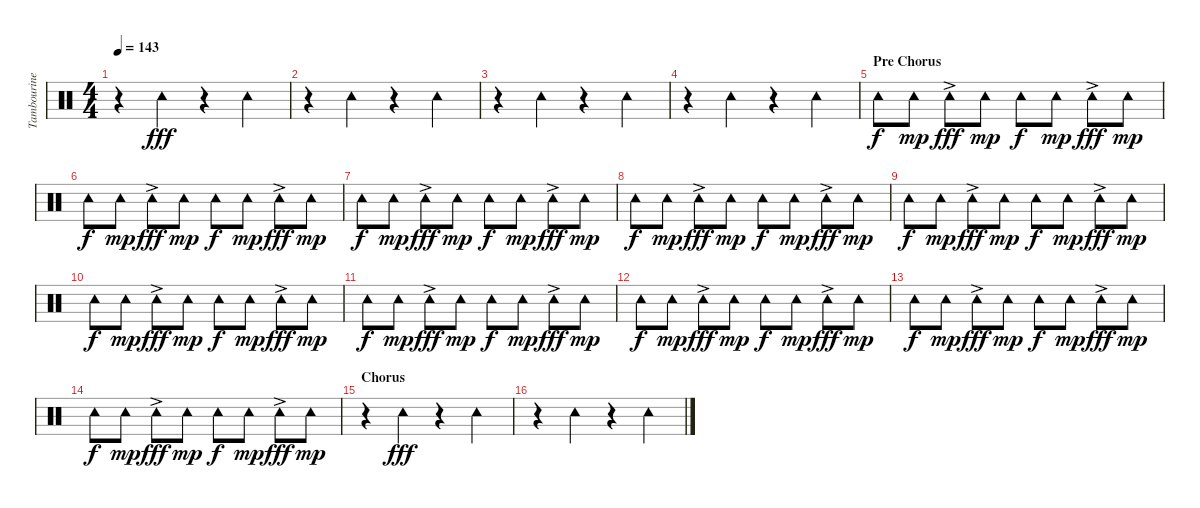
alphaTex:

\track ("Tambourine" "Tambourine") {instrument percussion}
\staff {score}
\articulation defaults
\ts (4 4)
\tempo 143
\clef neutral
\ks c
r.4{dy fff} "Tambourine (hit)".4 r.4 "Tambourine (hit)".4 |
r.4 "Tambourine (hit)".4 r.4 "Tambourine (hit)".4 |
r.4 "Tambourine (hit)".4 r.4 "Tambourine (hit)".4 |
r.4 "Tambourine (hit)".4 r.4 "Tambourine (hit)".4 |
\section ("" "Pre Chorus")
"Tambourine (hit)".8{dy f} "Tambourine (hit)".8{dy mp} "Tambourine (hit)"{ac}.8{dy fff} "Tambourine (hit)".8{dy mp} "Tambourine (hit)".8{dy f} "Tambourine (hit)".8{dy mp} "Tambourine (hit)"{ac}.8{dy fff} "Tambourine (hit)".8{dy mp} |
"Tambourine (hit)".8{dy f} "Tambourine (hit)".8{dy mp} "Tambourine (hit)"{ac}.8{dy fff} "Tambourine (hit)".8{dy mp} "Tambourine (hit)".8{dy f} "Tambourine (hit)".8{dy mp} "Tambourine (hit)"{ac}.8{dy fff} "Tambourine (hit)".8{dy mp} |
"Tambourine (hit)".8{dy f} "Tambourine (hit)".8{dy mp} "Tambourine (hit)"{ac}.8{dy fff} "Tambourine (hit)".8{dy mp} "Tambourine (hit)".8{dy f} "Tambourine (hit)".8{dy mp} "Tambourine (hit)"{ac}.8{dy fff} "Tambourine (hit)".8{dy mp} |
"Tambourine (hit)".8{dy f} "Tambourine (hit)".8{dy mp} "Tambourine (hit)"{ac}.8{dy fff} "Tambourine (hit)".8{dy mp} "Tambourine (hit)".8{dy f} "Tambourine (hit)".8{dy mp} "Tambourine (hit)"{ac}.8{dy fff} "Tambourine (hit)".8{dy mp} |
"Tambourine (hit)".8{dy f} "Tambourine (hit)".8{dy mp} "Tambourine (hit)"{ac}.8{dy fff} "Tambourine (hit)".8{dy mp} "Tambourine (hit)".8{dy f} "Tambourine (hit)".8{dy mp} "Tambourine (hit)"{ac}.8{dy fff} "Tambourine (hit)".8{dy mp} |
"Tambourine (hit)".8{dy f} "Tambourine (hit)".8{dy mp} "Tambourine (hit)"{ac}.8{dy fff} "Tambourine (hit)".8{dy mp} "Tambourine (hit)".8{dy f} "Tambourine (hit)".8{dy mp} "Tambourine (hit)"{ac}.8{dy fff} "Tambourine (hit)".8{dy mp} |
"Tambourine (hit)".8{dy f} "Tambourine (hit)".8{dy mp} "Tambourine (hit)"{ac}.8{dy fff} "Tambourine (hit)".8{dy mp} "Tambourine (hit)".8{dy f} "Tambourine (hit)".8{dy mp} "Tambourine (hit)"{ac}.8{dy fff} "Tambourine (hit)".8{dy mp} |
"Tambourine (hit)".8{dy f} "Tambourine (hit)".8{dy mp} "Tambourine (hit)"{ac}.8{dy fff} "Tambourine (hit)".8{dy mp} "Tambourine (hit)".8{dy f} "Tambourine (hit)".8{dy mp} "Tambourine (hit)"{ac}.8{dy fff} "Tambourine (hit)".8{dy mp} |
"Tambourine (hit)".8{dy f} "Tambourine (hit)".8{dy mp} "Tambourine (hit)"{ac}.8{dy fff} "Tambourine (hit)".8{dy mp} "Tambourine (hit)".8{dy f} "Tambourine (hit)".8{dy mp} "Tambourine (hit)"{ac}.8{dy fff} "Tambourine (hit)".8{dy mp} |
"Tambourine (hit)".8{dy f} "Tambourine (hit)".8{dy mp} "Tambourine (hit)"{ac}.8{dy fff} "Tambourine (hit)".8{dy mp} "Tambourine (hit)".8{dy f} "Tambourine (hit)".8{dy mp} "Tambourine (hit)"{ac}.8{dy fff} "Tambourine (hit)".8{dy mp} |
\section ("" "Chorus")
r.4 "Tambourine (hit)".4{dy fff} r.4 "Tambourine (hit)".4 |
r.4 "Tambourine (hit)".4 r.4 "Tambourine (hit)".4
